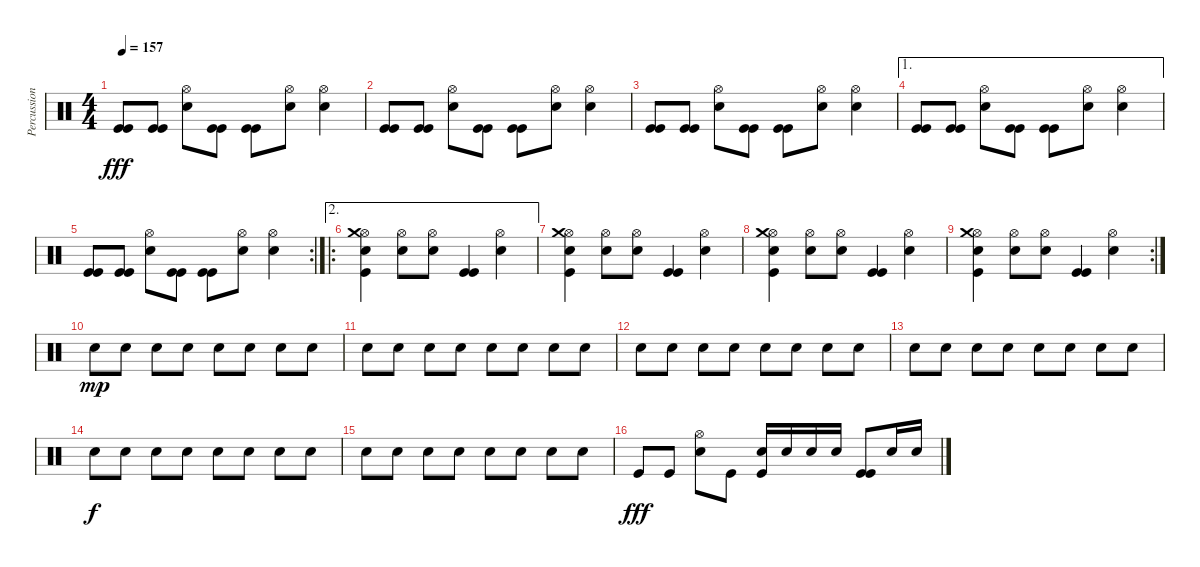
\track ("Percussions" "Percussion") {instrument percussion}
\staff {score}
\articulation defaults
\ts (4 4)
\tempo 157
\clef neutral
\ks c
("Kick (hit)" "Kick (hit)").8{dy fff} ("Kick (hit)" "Kick (hit)").8 ("Snare (hit) 2" "Hi-Hat (open)").8 ("Kick (hit)" "Kick (hit)").8 ("Kick (hit)" "Kick (hit)").8 ("Snare (hit) 2" "Hi-Hat (open)").8 ("Snare (hit) 2" "Hi-Hat (open)").4 |
("Kick (hit)" "Kick (hit)").8 ("Kick (hit)" "Kick (hit)").8 ("Snare (hit) 2" "Hi-Hat (open)").8 ("Kick (hit)" "Kick (hit)").8 ("Kick (hit)" "Kick (hit)").8 ("Snare (hit) 2" "Hi-Hat (open)").8 ("Snare (hit) 2" "Hi-Hat (open)").4 |
("Kick (hit)" "Kick (hit)").8 ("Kick (hit)" "Kick (hit)").8 ("Snare (hit) 2" "Hi-Hat (open)").8 ("Kick (hit)" "Kick (hit)").8 ("Kick (hit)" "Kick (hit)").8 ("Snare (hit) 2" "Hi-Hat (open)").8 ("Snare (hit) 2" "Hi-Hat (open)").4 |
\ae 1
("Kick (hit)" "Kick (hit)").8 ("Kick (hit)" "Kick (hit)").8 ("Snare (hit) 2" "Hi-Hat (open)").8 ("Kick (hit)" "Kick (hit)").8 ("Kick (hit)" "Kick (hit)").8 ("Snare (hit) 2" "Hi-Hat (open)").8 ("Snare (hit) 2" "Hi-Hat (open)").4 |
\rc 2
("Kick (hit)" "Kick (hit)").8 ("Kick (hit)" "Kick (hit)").8 ("Snare (hit) 2" "Hi-Hat (open)").8 ("Kick (hit)" "Kick (hit)").8 ("Kick (hit)" "Kick (hit)").8 ("Snare (hit) 2" "Hi-Hat (open)").8 ("Snare (hit) 2" "Hi-Hat (open)").4 |
\ae 2
\ro
("Hi-Hat (open)" "Snare (hit) 2" "Crash medium (hit)" "Kick (hit)").4 ("Snare (hit) 2" "Hi-Hat (open)").8 ("Snare (hit) 2" "Hi-Hat (open)").8 ("Kick (hit)" "Kick (hit)").4 ("Snare (hit) 2" "Hi-Hat (open)").4 |
("Hi-Hat (open)" "Snare (hit) 2" "Crash medium (hit)" "Kick (hit)").4 ("Snare (hit) 2" "Hi-Hat (open)").8 ("Snare (hit) 2" "Hi-Hat (open)").8 ("Kick (hit)" "Kick (hit)").4 ("Snare (hit) 2" "Hi-Hat (open)").4 |
("Hi-Hat (open)" "Snare (hit) 2" "Crash medium (hit)" "Kick (hit)").4 ("Snare (hit) 2" "Hi-Hat (open)").8 ("Snare (hit) 2" "Hi-Hat (open)").8 ("Kick (hit)" "Kick (hit)").4 ("Snare (hit) 2" "Hi-Hat (open)").4 |
\rc 2
("Hi-Hat (open)" "Snare (hit) 2" "Crash medium (hit)" "Kick (hit)").4 ("Snare (hit) 2" "Hi-Hat (open)").8 ("Snare (hit) 2" "Hi-Hat (open)").8 ("Kick (hit)" "Kick (hit)").4 ("Snare (hit) 2" "Hi-Hat (open)").4 |
"Snare (hit) 2".8{dy mp} "Snare (hit) 2".8 "Snare (hit) 2".8 "Snare (hit) 2".8 "Snare (hit) 2".8 "Snare (hit) 2".8 "Snare (hit) 2".8 "Snare (hit) 2".8 |
"Snare (hit) 2".8 "Snare (hit) 2".8 "Snare (hit) 2".8 "Snare (hit) 2".8 "Snare (hit) 2".8 "Snare (hit) 2".8 "Snare (hit) 2".8 "Snare (hit) 2".8 |
"Snare (hit) 2".8 "Snare (hit) 2".8 "Snare (hit) 2".8 "Snare (hit) 2".8 "Snare (hit) 2".8 "Snare (hit) 2".8 "Snare (hit) 2".8 "Snare (hit) 2".8 |
"Snare (hit) 2".8 "Snare (hit) 2".8 "Snare (hit) 2".8 "Snare (hit) 2".8 "Snare (hit) 2".8 "Snare (hit) 2".8 "Snare (hit) 2".8 "Snare (hit) 2".8 |
"Snare (hit) 2".8{dy f} "Snare (hit) 2".8 "Snare (hit) 2".8 "Snare (hit) 2".8 "Snare (hit) 2".8 "Snare (hit) 2".8 "Snare (hit) 2".8 "Snare (hit) 2".8 |
"Snare (hit) 2".8 "Snare (hit) 2".8 "Snare (hit) 2".8 "Snare (hit) 2".8 "Snare (hit) 2".8 "Snare (hit) 2".8 "Snare (hit) 2".8 "Snare (hit) 2".8 |
"Kick (hit)".8{dy fff} "Kick (hit)".8 ("Snare (hit) 2" "Hi-Hat (open)").8 "Kick (hit)".8 ("Snare (hit) 2" "Kick (hit)").16 "Snare (hit) 2".16 "Snare (hit) 2".16 "Snare (hit) 2".16 ("Kick (hit)" "Kick (hit)").8 "Snare (hit) 2".16 "Snare (hit) 2".16
